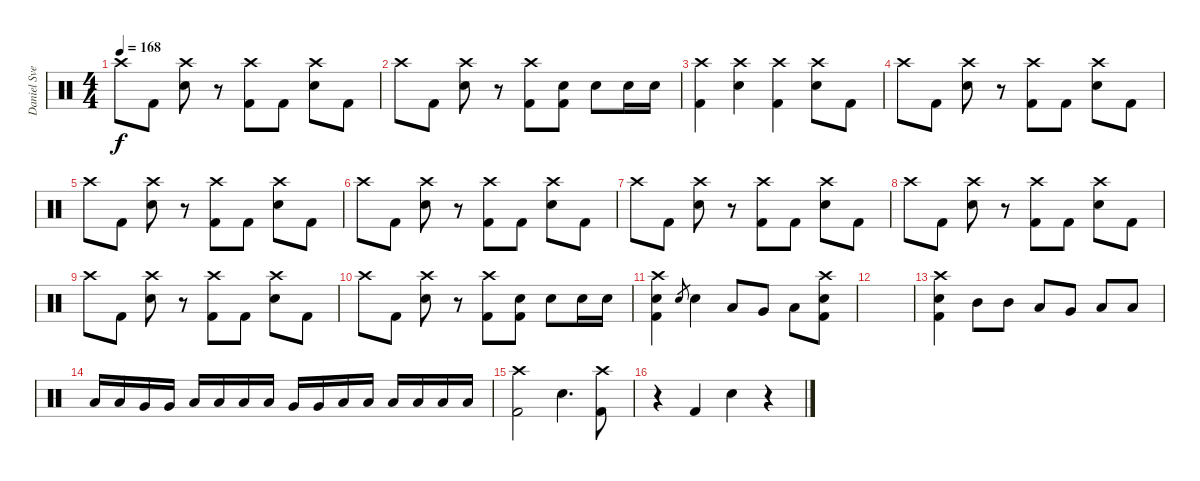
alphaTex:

\track ("Daniel Svensson" "Daniel Sve") {instrument percussion}
\staff {score}
\articulation defaults
\ts (4 4)
\tempo 168
\clef neutral
\ks c "Crash high (hit)".8{dy f} "Kick (hit) 2".8
("Crash high (hit)" "Electric Snare (hit)").8 r.8 ("Crash high (hit)" "Kick (hit) 2").8 "Kick (hit) 2".8 ("Crash high (hit)" "Electric Snare (hit)").8 "Kick (hit) 2".8 |
"Crash high (hit)".8 "Kick (hit) 2".8 ("Crash high (hit)" "Electric Snare (hit)").8 r.8 ("Crash high (hit)" "Kick (hit) 2").8 ("Electric Snare (hit)" "Kick (hit) 2").8 "Electric Snare (hit)".8 "Electric Snare (hit)".16 "Electric Snare (hit)".16 |
("Crash high (hit)" "Kick (hit) 2").4 ("Crash high (hit)" "Electric Snare (hit)").4 ("Crash high (hit)" "Kick (hit) 2").4 ("Crash high (hit)" "Electric Snare (hit)").8 "Kick (hit) 2".8 |
"Crash high (hit)".8 "Kick (hit) 2".8 ("Crash high (hit)" "Electric Snare (hit)").8 r.8 ("Crash high (hit)" "Kick (hit) 2").8 "Kick (hit) 2".8 ("Crash high (hit)" "Electric Snare (hit)").8 "Kick (hit) 2".8 |
"Crash high (hit)".8 "Kick (hit) 2".8 ("Crash high (hit)" "Electric Snare (hit)").8 r.8 ("Crash high (hit)" "Kick (hit) 2").8 "Kick (hit) 2".8 ("Crash high (hit)" "Electric Snare (hit)").8 "Kick (hit) 2".8 |
"Crash high (hit)".8 "Kick (hit) 2".8 ("Crash high (hit)" "Electric Snare (hit)").8 r.8 ("Crash high (hit)" "Kick (hit) 2").8 "Kick (hit) 2".8 ("Crash high (hit)" "Electric Snare (hit)").8 "Kick (hit) 2".8 |
"Crash high (hit)".8 "Kick (hit) 2".8 ("Crash high (hit)" "Electric Snare (hit)").8 r.8 ("Crash high (hit)" "Kick (hit) 2").8 "Kick (hit) 2".8 ("Crash high (hit)" "Electric Snare (hit)").8 "Kick (hit) 2".8 |
"Crash high (hit)".8 "Kick (hit) 2".8 ("Crash high (hit)" "Electric Snare (hit)").8 r.8 ("Crash high (hit)" "Kick (hit) 2").8 "Kick (hit) 2".8 ("Crash high (hit)" "Electric Snare (hit)").8 "Kick (hit) 2".8 |
"Crash high (hit)".8 "Kick (hit) 2".8 ("Crash high (hit)" "Electric Snare (hit)").8 r.8 ("Crash high (hit)" "Kick (hit) 2").8 "Kick (hit) 2".8 ("Crash high (hit)" "Electric Snare (hit)").8 "Kick (hit) 2".8 |
"Crash high (hit)".8 "Kick (hit) 2".8 ("Crash high (hit)" "Electric Snare (hit)").8 r.8 ("Crash high (hit)" "Kick (hit) 2").8 ("Electric Snare (hit)" "Kick (hit) 2").8 "Electric Snare (hit)".8 "Electric Snare (hit)".16 "Electric Snare (hit)".16 |
("Crash high (hit)" "Electric Snare (hit)" "Kick (hit) 2").4 "Electric Snare (hit)".8{gr} "Electric Snare (hit)".4 "Low Tom (hit)".8 "Very Low Tom (hit)".8 "Low Floor Tom (hit)".8 ("Crash high (hit)" "Electric Snare (hit)" "Kick (hit) 2").8 |
|
("Crash high (hit)" "Electric Snare (hit)" "Kick (hit) 2").4 "Mid Tom (hit)".8 "Mid Tom (hit)".8 "Low Tom (hit)".8 "Very Low Tom (hit)".8 "Low Floor Tom (hit)".8 "Low Floor Tom (hit)".8 |
"Low Tom (hit)".16 "Low Tom (hit)".16 "Very Low Tom (hit)".16 "Very Low Tom (hit)".16 "Low Floor Tom (hit)".16 "Low Floor Tom (hit)".16 "Low Tom (hit)".16 "Low Tom (hit)".16 "Very Low Tom (hit)".16 "Very Low Tom (hit)".16 "Low Floor Tom (hit)".16 "Low Floor Tom (hit)".16 "Low Tom (hit)".16 "Low Tom (hit)".16 "Low Tom (hit)".16 "Low Tom (hit)".16 |
("Crash high (hit)" "Kick (hit) 2").2 "Electric Snare (hit)".4{d} ("Crash high (hit)" "Kick (hit) 2").8 |
r.4 "Kick (hit) 2".4 "Electric Snare (hit)".4 r.4
